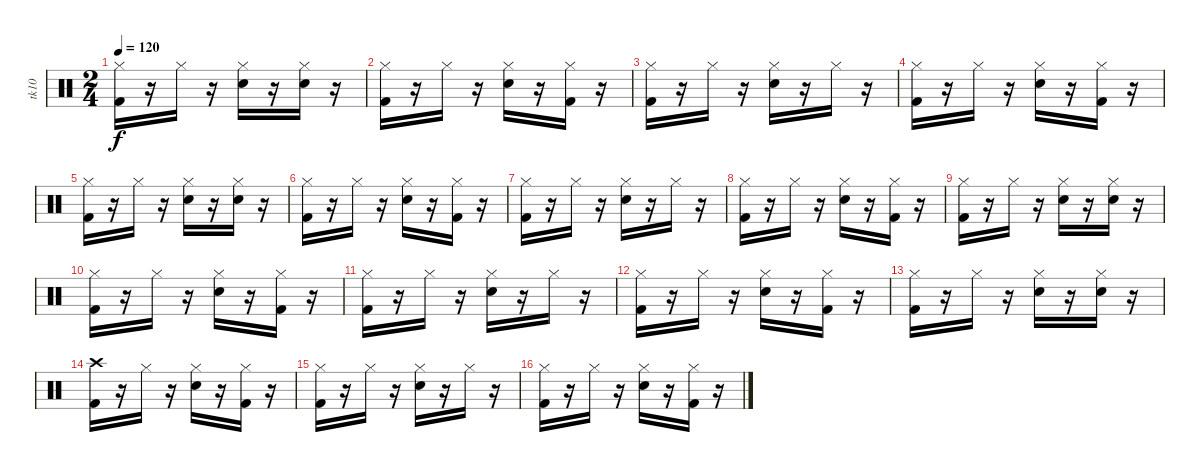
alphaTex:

\track ("tk10" "tk10") {instrument percussion}
\staff {score}
\articulation defaults
\ts (2 4)
\tempo 120
\clef neutral
\ks c
("Hi-Hat (closed)" "Kick (hit) 2").16{dy f} r.16 "Hi-Hat (closed)".16 r.16 ("Snare (hit) 2" "Hi-Hat (closed)").16 r.16 ("Hi-Hat (closed)" "Snare (hit) 2").16 r.16 |
("Kick (hit) 2" "Hi-Hat (closed)").16 r.16 "Hi-Hat (closed)".16 r.16 ("Hi-Hat (closed)" "Snare (hit) 2").16 r.16 ("Hi-Hat (closed)" "Kick (hit) 2").16 r.16 |
("Kick (hit) 2" "Hi-Hat (closed)").16 r.16 "Hi-Hat (closed)".16 r.16 ("Snare (hit) 2" "Hi-Hat (closed)").16 r.16 "Hi-Hat (closed)".16 r.16 |
("Hi-Hat (closed)" "Kick (hit) 2").16 r.16 "Hi-Hat (closed)".16 r.16 ("Snare (hit) 2" "Hi-Hat (closed)").16 r.16 ("Kick (hit) 2" "Hi-Hat (closed)").16 r.16 |
("Kick (hit) 2" "Hi-Hat (closed)").16 r.16 "Hi-Hat (closed)".16 r.16 ("Hi-Hat (closed)" "Snare (hit) 2").16 r.16 ("Hi-Hat (closed)" "Snare (hit) 2").16 r.16 |
("Hi-Hat (closed)" "Kick (hit) 2").16 r.16 "Hi-Hat (closed)".16 r.16 ("Hi-Hat (closed)" "Snare (hit) 2").16 r.16 ("Hi-Hat (closed)" "Kick (hit) 2").16 r.16 |
("Hi-Hat (closed)" "Kick (hit) 2").16 r.16 "Hi-Hat (closed)".16 r.16 ("Hi-Hat (closed)" "Snare (hit) 2").16 r.16 "Hi-Hat (closed)".16 r.16 |
("Kick (hit) 2" "Hi-Hat (closed)").16 r.16 "Hi-Hat (closed)".16 r.16 ("Hi-Hat (closed)" "Snare (hit) 2").16 r.16 ("Kick (hit) 2" "Hi-Hat (closed)").16 r.16 |
("Hi-Hat (closed)" "Kick (hit) 2").16 r.16 "Hi-Hat (closed)".16 r.16 ("Hi-Hat (closed)" "Snare (hit) 2").16 r.16 ("Hi-Hat (closed)" "Snare (hit) 2").16 r.16 |
("Hi-Hat (closed)" "Kick (hit) 2").16 r.16 "Hi-Hat (closed)".16 r.16 ("Hi-Hat (closed)" "Snare (hit) 2").16 r.16 ("Kick (hit) 2" "Hi-Hat (closed)").16 r.16 |
("Hi-Hat (closed)" "Kick (hit) 2").16 r.16 "Hi-Hat (closed)".16 r.16 ("Snare (hit) 2" "Hi-Hat (closed)").16 r.16 "Hi-Hat (closed)".16 r.16 |
("Kick (hit) 2" "Hi-Hat (closed)").16 r.16 "Hi-Hat (closed)".16 r.16 ("Snare (hit) 2" "Hi-Hat (closed)").16 r.16 ("Hi-Hat (closed)" "Kick (hit) 2").16 r.16 |
("Kick (hit) 2" "Hi-Hat (closed)").16 r.16 "Hi-Hat (closed)".16 r.16 ("Hi-Hat (closed)" "Snare (hit) 2").16 r.16 ("Snare (hit) 2" "Hi-Hat (closed)").16 r.16 |
("Kick (hit) 2" "Crash high (hit)").16 r.16 "Hi-Hat (closed)".16 r.16 ("Snare (hit) 2" "Hi-Hat (closed)").16 r.16 ("Hi-Hat (closed)" "Kick (hit) 2").16 r.16 |
("Kick (hit) 2" "Hi-Hat (closed)").16 r.16 "Hi-Hat (closed)".16 r.16 ("Hi-Hat (closed)" "Snare (hit) 2").16 r.16 "Hi-Hat (closed)".16 r.16 |
("Kick (hit) 2" "Hi-Hat (closed)").16 r.16 "Hi-Hat (closed)".16 r.16 ("Hi-Hat (closed)" "Snare (hit) 2").16 r.16 ("Kick (hit) 2" "Hi-Hat (closed)").16 r.16
